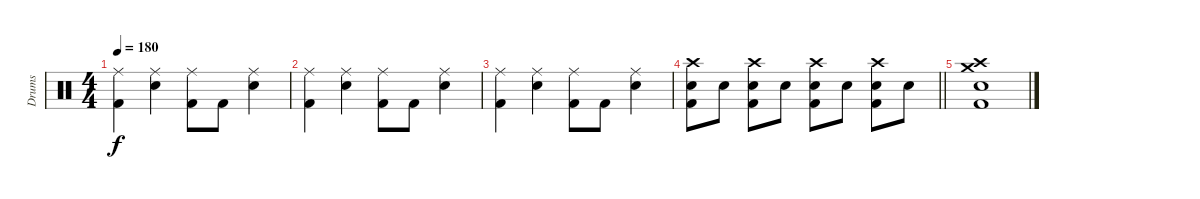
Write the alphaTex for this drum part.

\track ("Drums" "Drums") {instrument percussion}
\staff {score}
\articulation defaults
\ts (4 4)
\tempo 180
\clef neutral
\ks c
("Ride (middle)" "Kick (hit) 2").4{dy f} ("Ride (middle)" "Electric Snare (hit)").4 ("Ride (middle)" "Kick (hit) 2").8 "Kick (hit) 2".8 ("Ride (middle)" "Electric Snare (hit)").4 |
("Ride (middle)" "Kick (hit) 2").4 ("Ride (middle)" "Electric Snare (hit)").4 ("Ride (middle)" "Kick (hit) 2").8 "Kick (hit) 2".8 ("Ride (middle)" "Electric Snare (hit)").4 |
("Ride (middle)" "Kick (hit) 2").4 ("Ride (middle)" "Electric Snare (hit)").4 ("Ride (middle)" "Kick (hit) 2").8 "Kick (hit) 2".8 ("Ride (middle)" "Electric Snare (hit)").4 |
\barLineRight lightlight
("Crash high (hit)" "Electric Snare (hit)" "Kick (hit) 2").8 "Electric Snare (hit)".8 ("Crash high (hit)" "Electric Snare (hit)" "Kick (hit) 2").8 "Electric Snare (hit)".8 ("Crash high (hit)" "Electric Snare (hit)" "Kick (hit) 2").8 "Electric Snare (hit)".8 ("Crash high (hit)" "Electric Snare (hit)" "Kick (hit) 2").8 "Electric Snare (hit)".8 |
("Crash high (hit)" "Crash medium (hit)" "Electric Snare (hit)" "Kick (hit) 2").1
